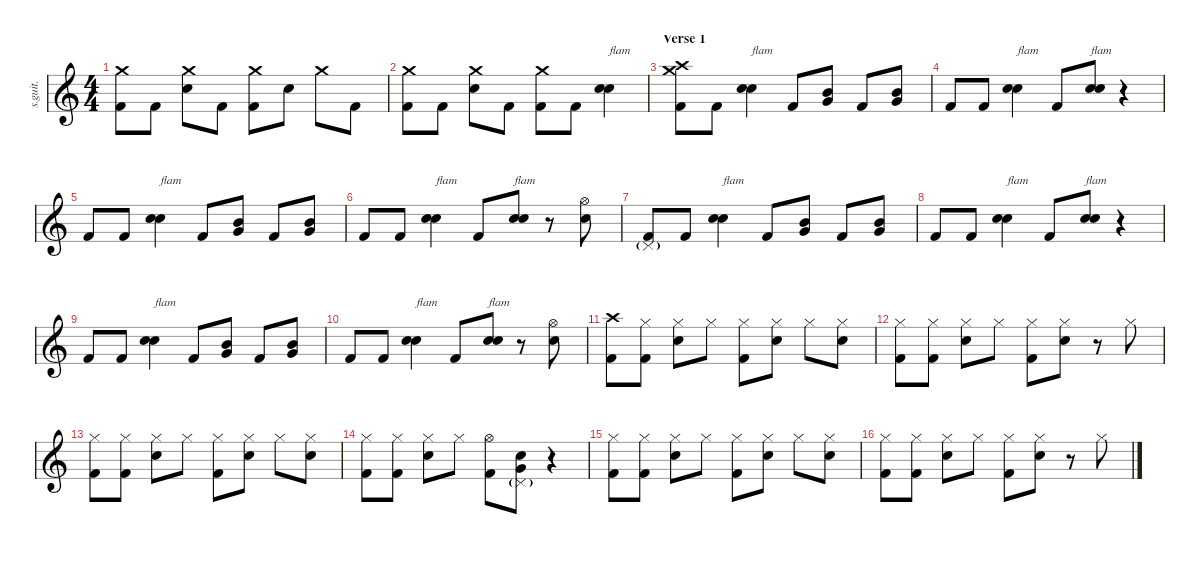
\defaultSystemsLayout 4
\hideDynamics
\bracketExtendMode nobrackets
\track ("Zac Farro | Drums" "s.guit.") {instrument percussion}
\staff {score}
\articulation defaults
\ts (4 4)
\tempo (173 hide)
\clef g2
\ks c
("Crash medium (hit)" "Kick (hit) 2").8{lyrics (0 "") lyrics (1 "") lyrics (2 "") lyrics (3 "") lyrics (4 "") dy f} "Kick (hit) 2".8{lyrics (0 "") lyrics (1 "") lyrics (2 "") lyrics (3 "") lyrics (4 "")} ("Crash medium (hit)" "Electric Snare (hit)").8{lyrics (0 "") lyrics (1 "") lyrics (2 "") lyrics (3 "") lyrics (4 "")} "Kick (hit) 2".8{lyrics (0 "") lyrics (1 "") lyrics (2 "") lyrics (3 "") lyrics (4 "")} ("Crash medium (hit)" "Kick (hit) 2").8{lyrics (0 "") lyrics (1 "") lyrics (2 "") lyrics (3 "") lyrics (4 "")} "Electric Snare (hit)".8{lyrics (0 "") lyrics (1 "") lyrics (2 "") lyrics (3 "") lyrics (4 "")} "Crash medium (hit)".8{lyrics (0 "") lyrics (1 "") lyrics (2 "") lyrics (3 "") lyrics (4 "")} "Kick (hit) 2".8{lyrics (0 "") lyrics (1 "") lyrics (2 "") lyrics (3 "") lyrics (4 "")} |
("Crash medium (hit)" "Kick (hit) 2").8{lyrics (0 "") lyrics (1 "") lyrics (2 "") lyrics (3 "") lyrics (4 "")} "Kick (hit) 2".8{lyrics (0 "") lyrics (1 "") lyrics (2 "") lyrics (3 "") lyrics (4 "")} ("Crash medium (hit)" "Electric Snare (hit)").8{lyrics (0 "") lyrics (1 "") lyrics (2 "") lyrics (3 "") lyrics (4 "")} "Kick (hit) 2".8{lyrics (0 "") lyrics (1 "") lyrics (2 "") lyrics (3 "") lyrics (4 "")} ("Crash medium (hit)" "Kick (hit) 2").8{lyrics (0 "") lyrics (1 "") lyrics (2 "") lyrics (3 "") lyrics (4 "")} "Kick (hit) 2".8{lyrics (0 "") lyrics (1 "") lyrics (2 "") lyrics (3 "") lyrics (4 "")} ("Electric Snare (hit)" "Electric Snare (hit)").4{bd 30 txt "flam" lyrics (0 "") lyrics (1 "") lyrics (2 "") lyrics (3 "") lyrics (4 "")} |
\section ("" "Verse 1")
("Crash high (hit)" "Crash medium (hit)" "Kick (hit) 2").8{lyrics (0 "") lyrics (1 "") lyrics (2 "") lyrics (3 "") lyrics (4 "")} "Kick (hit) 2".8{lyrics (0 "") lyrics (1 "") lyrics (2 "") lyrics (3 "") lyrics (4 "")} ("Electric Snare (hit)" "Electric Snare (hit)").4{bd 30 txt "flam" lyrics (0 "") lyrics (1 "") lyrics (2 "") lyrics (3 "") lyrics (4 "")} "Kick (hit) 2".8{lyrics (0 "") lyrics (1 "") lyrics (2 "") lyrics (3 "") lyrics (4 "")} ("Mid Tom (hit)" "Very Low Tom (hit)").8{lyrics (0 "") lyrics (1 "") lyrics (2 "") lyrics (3 "") lyrics (4 "")} "Kick (hit) 2".8{lyrics (0 "") lyrics (1 "") lyrics (2 "") lyrics (3 "") lyrics (4 "")} ("Mid Tom (hit)" "Very Low Tom (hit)").8{lyrics (0 "") lyrics (1 "") lyrics (2 "") lyrics (3 "") lyrics (4 "")} |
"Kick (hit) 2".8{lyrics (0 "") lyrics (1 "") lyrics (2 "") lyrics (3 "") lyrics (4 "")} "Kick (hit) 2".8{lyrics (0 "") lyrics (1 "") lyrics (2 "") lyrics (3 "") lyrics (4 "")} ("Electric Snare (hit)" "Electric Snare (hit)").4{bd 30 txt "flam" lyrics (0 "") lyrics (1 "") lyrics (2 "") lyrics (3 "") lyrics (4 "")} "Kick (hit) 2".8{lyrics (0 "") lyrics (1 "") lyrics (2 "") lyrics (3 "") lyrics (4 "")} ("Electric Snare (hit)" "Electric Snare (hit)").8{bd 30 txt "flam" lyrics (0 "") lyrics (1 "") lyrics (2 "") lyrics (3 "") lyrics (4 "")} r.4 |
"Kick (hit) 2".8{lyrics (0 "") lyrics (1 "") lyrics (2 "") lyrics (3 "") lyrics (4 "")} "Kick (hit) 2".8{lyrics (0 "") lyrics (1 "") lyrics (2 "") lyrics (3 "") lyrics (4 "")} ("Electric Snare (hit)" "Electric Snare (hit)").4{bd 30 txt "flam" lyrics (0 "") lyrics (1 "") lyrics (2 "") lyrics (3 "") lyrics (4 "")} "Kick (hit) 2".8{lyrics (0 "") lyrics (1 "") lyrics (2 "") lyrics (3 "") lyrics (4 "")} ("Mid Tom (hit)" "Very Low Tom (hit)").8{lyrics (0 "") lyrics (1 "") lyrics (2 "") lyrics (3 "") lyrics (4 "")} "Kick (hit) 2".8{lyrics (0 "") lyrics (1 "") lyrics (2 "") lyrics (3 "") lyrics (4 "")} ("Mid Tom (hit)" "Very Low Tom (hit)").8{lyrics (0 "") lyrics (1 "") lyrics (2 "") lyrics (3 "") lyrics (4 "")} |
"Kick (hit) 2".8{lyrics (0 "") lyrics (1 "") lyrics (2 "") lyrics (3 "") lyrics (4 "")} "Kick (hit) 2".8{lyrics (0 "") lyrics (1 "") lyrics (2 "") lyrics (3 "") lyrics (4 "")} ("Electric Snare (hit)" "Electric Snare (hit)").4{bd 30 txt "flam" lyrics (0 "") lyrics (1 "") lyrics (2 "") lyrics (3 "") lyrics (4 "")} "Kick (hit) 2".8{lyrics (0 "") lyrics (1 "") lyrics (2 "") lyrics (3 "") lyrics (4 "")} ("Electric Snare (hit)" "Electric Snare (hit)").8{bd 30 txt "flam" lyrics (0 "") lyrics (1 "") lyrics (2 "") lyrics (3 "") lyrics (4 "")} r.8 ("Hi-Hat (open)" "Electric Snare (hit)").8{lyrics (0 "") lyrics (1 "") lyrics (2 "") lyrics (3 "") lyrics (4 "")} |
("Kick (hit) 2" "Pedal Hi-Hat (hit)"{g}).8{lyrics (0 "") lyrics (1 "") lyrics (2 "") lyrics (3 "") lyrics (4 "")} "Kick (hit) 2".8{lyrics (0 "") lyrics (1 "") lyrics (2 "") lyrics (3 "") lyrics (4 "")} ("Electric Snare (hit)" "Electric Snare (hit)").4{bd 30 txt "flam" lyrics (0 "") lyrics (1 "") lyrics (2 "") lyrics (3 "") lyrics (4 "")} "Kick (hit) 2".8{lyrics (0 "") lyrics (1 "") lyrics (2 "") lyrics (3 "") lyrics (4 "")} ("Mid Tom (hit)" "Very Low Tom (hit)").8{lyrics (0 "") lyrics (1 "") lyrics (2 "") lyrics (3 "") lyrics (4 "")} "Kick (hit) 2".8{lyrics (0 "") lyrics (1 "") lyrics (2 "") lyrics (3 "") lyrics (4 "")} ("Mid Tom (hit)" "Very Low Tom (hit)").8{lyrics (0 "") lyrics (1 "") lyrics (2 "") lyrics (3 "") lyrics (4 "")} |
"Kick (hit) 2".8{lyrics (0 "") lyrics (1 "") lyrics (2 "") lyrics (3 "") lyrics (4 "")} "Kick (hit) 2".8{lyrics (0 "") lyrics (1 "") lyrics (2 "") lyrics (3 "") lyrics (4 "")} ("Electric Snare (hit)" "Electric Snare (hit)").4{bd 30 txt "flam" lyrics (0 "") lyrics (1 "") lyrics (2 "") lyrics (3 "") lyrics (4 "")} "Kick (hit) 2".8{lyrics (0 "") lyrics (1 "") lyrics (2 "") lyrics (3 "") lyrics (4 "")} ("Electric Snare (hit)" "Electric Snare (hit)").8{bd 30 txt "flam" lyrics (0 "") lyrics (1 "") lyrics (2 "") lyrics (3 "") lyrics (4 "")} r.4 |
"Kick (hit) 2".8{lyrics (0 "") lyrics (1 "") lyrics (2 "") lyrics (3 "") lyrics (4 "")} "Kick (hit) 2".8{lyrics (0 "") lyrics (1 "") lyrics (2 "") lyrics (3 "") lyrics (4 "")} ("Electric Snare (hit)" "Electric Snare (hit)").4{bd 30 txt "flam" lyrics (0 "") lyrics (1 "") lyrics (2 "") lyrics (3 "") lyrics (4 "")} "Kick (hit) 2".8{lyrics (0 "") lyrics (1 "") lyrics (2 "") lyrics (3 "") lyrics (4 "")} ("Mid Tom (hit)" "Very Low Tom (hit)").8{lyrics (0 "") lyrics (1 "") lyrics (2 "") lyrics (3 "") lyrics (4 "")} "Kick (hit) 2".8{lyrics (0 "") lyrics (1 "") lyrics (2 "") lyrics (3 "") lyrics (4 "")} ("Mid Tom (hit)" "Very Low Tom (hit)").8{lyrics (0 "") lyrics (1 "") lyrics (2 "") lyrics (3 "") lyrics (4 "")} |
"Kick (hit) 2".8{lyrics (0 "") lyrics (1 "") lyrics (2 "") lyrics (3 "") lyrics (4 "")} "Kick (hit) 2".8{lyrics (0 "") lyrics (1 "") lyrics (2 "") lyrics (3 "") lyrics (4 "")} ("Electric Snare (hit)" "Electric Snare (hit)").4{bd 30 txt "flam" lyrics (0 "") lyrics (1 "") lyrics (2 "") lyrics (3 "") lyrics (4 "")} "Kick (hit) 2".8{lyrics (0 "") lyrics (1 "") lyrics (2 "") lyrics (3 "") lyrics (4 "")} ("Electric Snare (hit)" "Electric Snare (hit)").8{bd 30 txt "flam" lyrics (0 "") lyrics (1 "") lyrics (2 "") lyrics (3 "") lyrics (4 "")} r.8 ("Hi-Hat (open)" "Electric Snare (hit)").8{lyrics (0 "") lyrics (1 "") lyrics (2 "") lyrics (3 "") lyrics (4 "")} |
("Crash high (hit)" "Kick (hit) 2").8{lyrics (0 "") lyrics (1 "") lyrics (2 "") lyrics (3 "") lyrics (4 "")} ("Hi-Hat (closed)" "Kick (hit) 2").8{lyrics (0 "") lyrics (1 "") lyrics (2 "") lyrics (3 "") lyrics (4 "")} ("Hi-Hat (closed)" "Electric Snare (hit)").8{lyrics (0 "") lyrics (1 "") lyrics (2 "") lyrics (3 "") lyrics (4 "")} "Hi-Hat (closed)".8{lyrics (0 "") lyrics (1 "") lyrics (2 "") lyrics (3 "") lyrics (4 "")} ("Hi-Hat (closed)" "Kick (hit) 2").8{lyrics (0 "") lyrics (1 "") lyrics (2 "") lyrics (3 "") lyrics (4 "")} ("Hi-Hat (closed)" "Electric Snare (hit)").8{lyrics (0 "") lyrics (1 "") lyrics (2 "") lyrics (3 "") lyrics (4 "")} "Hi-Hat (closed)".8{lyrics (0 "") lyrics (1 "") lyrics (2 "") lyrics (3 "") lyrics (4 "")} ("Hi-Hat (closed)" "Electric Snare (hit)").8{lyrics (0 "") lyrics (1 "") lyrics (2 "") lyrics (3 "") lyrics (4 "")} |
("Hi-Hat (closed)" "Kick (hit) 2").8{lyrics (0 "") lyrics (1 "") lyrics (2 "") lyrics (3 "") lyrics (4 "")} ("Hi-Hat (closed)" "Kick (hit) 2").8{lyrics (0 "") lyrics (1 "") lyrics (2 "") lyrics (3 "") lyrics (4 "")} ("Hi-Hat (closed)" "Electric Snare (hit)").8{lyrics (0 "") lyrics (1 "") lyrics (2 "") lyrics (3 "") lyrics (4 "")} "Hi-Hat (closed)".8{lyrics (0 "") lyrics (1 "") lyrics (2 "") lyrics (3 "") lyrics (4 "")} ("Hi-Hat (closed)" "Kick (hit) 2").8{lyrics (0 "") lyrics (1 "") lyrics (2 "") lyrics (3 "") lyrics (4 "")} ("Hi-Hat (closed)" "Electric Snare (hit)").8{lyrics (0 "") lyrics (1 "") lyrics (2 "") lyrics (3 "") lyrics (4 "")} r.8 "Hi-Hat (closed)".8{lyrics (0 "") lyrics (1 "") lyrics (2 "") lyrics (3 "") lyrics (4 "")} |
("Hi-Hat (closed)" "Kick (hit) 2").8{lyrics (0 "") lyrics (1 "") lyrics (2 "") lyrics (3 "") lyrics (4 "")} ("Hi-Hat (closed)" "Kick (hit) 2").8{lyrics (0 "") lyrics (1 "") lyrics (2 "") lyrics (3 "") lyrics (4 "")} ("Hi-Hat (closed)" "Electric Snare (hit)").8{lyrics (0 "") lyrics (1 "") lyrics (2 "") lyrics (3 "") lyrics (4 "")} "Hi-Hat (closed)".8{lyrics (0 "") lyrics (1 "") lyrics (2 "") lyrics (3 "") lyrics (4 "")} ("Hi-Hat (closed)" "Kick (hit) 2").8{lyrics (0 "") lyrics (1 "") lyrics (2 "") lyrics (3 "") lyrics (4 "")} ("Hi-Hat (closed)" "Electric Snare (hit)").8{lyrics (0 "") lyrics (1 "") lyrics (2 "") lyrics (3 "") lyrics (4 "")} "Hi-Hat (closed)".8{lyrics (0 "") lyrics (1 "") lyrics (2 "") lyrics (3 "") lyrics (4 "")} ("Hi-Hat (closed)" "Electric Snare (hit)").8{lyrics (0 "") lyrics (1 "") lyrics (2 "") lyrics (3 "") lyrics (4 "")} |
("Hi-Hat (closed)" "Kick (hit) 2").8{lyrics (0 "") lyrics (1 "") lyrics (2 "") lyrics (3 "") lyrics (4 "")} ("Hi-Hat (closed)" "Kick (hit) 2").8{lyrics (0 "") lyrics (1 "") lyrics (2 "") lyrics (3 "") lyrics (4 "")} ("Hi-Hat (closed)" "Electric Snare (hit)").8{lyrics (0 "") lyrics (1 "") lyrics (2 "") lyrics (3 "") lyrics (4 "")} "Hi-Hat (closed)".8{lyrics (0 "") lyrics (1 "") lyrics (2 "") lyrics (3 "") lyrics (4 "")} ("Hi-Hat (open)" "Kick (hit) 2").8{lyrics (0 "") lyrics (1 "") lyrics (2 "") lyrics (3 "") lyrics (4 "")} ("Electric Snare (hit)" "Very Low Tom (hit)" "Pedal Hi-Hat (hit)"{g}).8{lyrics (0 "") lyrics (1 "") lyrics (2 "") lyrics (3 "") lyrics (4 "")} r.4 |
("Hi-Hat (closed)" "Kick (hit) 2").8{lyrics (0 "") lyrics (1 "") lyrics (2 "") lyrics (3 "") lyrics (4 "")} ("Hi-Hat (closed)" "Kick (hit) 2").8{lyrics (0 "") lyrics (1 "") lyrics (2 "") lyrics (3 "") lyrics (4 "")} ("Hi-Hat (closed)" "Electric Snare (hit)").8{lyrics (0 "") lyrics (1 "") lyrics (2 "") lyrics (3 "") lyrics (4 "")} "Hi-Hat (closed)".8{lyrics (0 "") lyrics (1 "") lyrics (2 "") lyrics (3 "") lyrics (4 "")} ("Hi-Hat (closed)" "Kick (hit) 2").8{lyrics (0 "") lyrics (1 "") lyrics (2 "") lyrics (3 "") lyrics (4 "")} ("Hi-Hat (closed)" "Electric Snare (hit)").8{lyrics (0 "") lyrics (1 "") lyrics (2 "") lyrics (3 "") lyrics (4 "")} "Hi-Hat (closed)".8{lyrics (0 "") lyrics (1 "") lyrics (2 "") lyrics (3 "") lyrics (4 "")} ("Hi-Hat (closed)" "Electric Snare (hit)").8{lyrics (0 "") lyrics (1 "") lyrics (2 "") lyrics (3 "") lyrics (4 "")} |
("Hi-Hat (closed)" "Kick (hit) 2").8{lyrics (0 "") lyrics (1 "") lyrics (2 "") lyrics (3 "") lyrics (4 "")} ("Hi-Hat (closed)" "Kick (hit) 2").8{lyrics (0 "") lyrics (1 "") lyrics (2 "") lyrics (3 "") lyrics (4 "")} ("Hi-Hat (closed)" "Electric Snare (hit)").8{lyrics (0 "") lyrics (1 "") lyrics (2 "") lyrics (3 "") lyrics (4 "")} "Hi-Hat (closed)".8{lyrics (0 "") lyrics (1 "") lyrics (2 "") lyrics (3 "") lyrics (4 "")} ("Hi-Hat (closed)" "Kick (hit) 2").8{lyrics (0 "") lyrics (1 "") lyrics (2 "") lyrics (3 "") lyrics (4 "")} ("Hi-Hat (closed)" "Electric Snare (hit)").8{lyrics (0 "") lyrics (1 "") lyrics (2 "") lyrics (3 "") lyrics (4 "")} r.8 "Hi-Hat (closed)".8{lyrics (0 "") lyrics (1 "") lyrics (2 "") lyrics (3 "") lyrics (4 "")}
